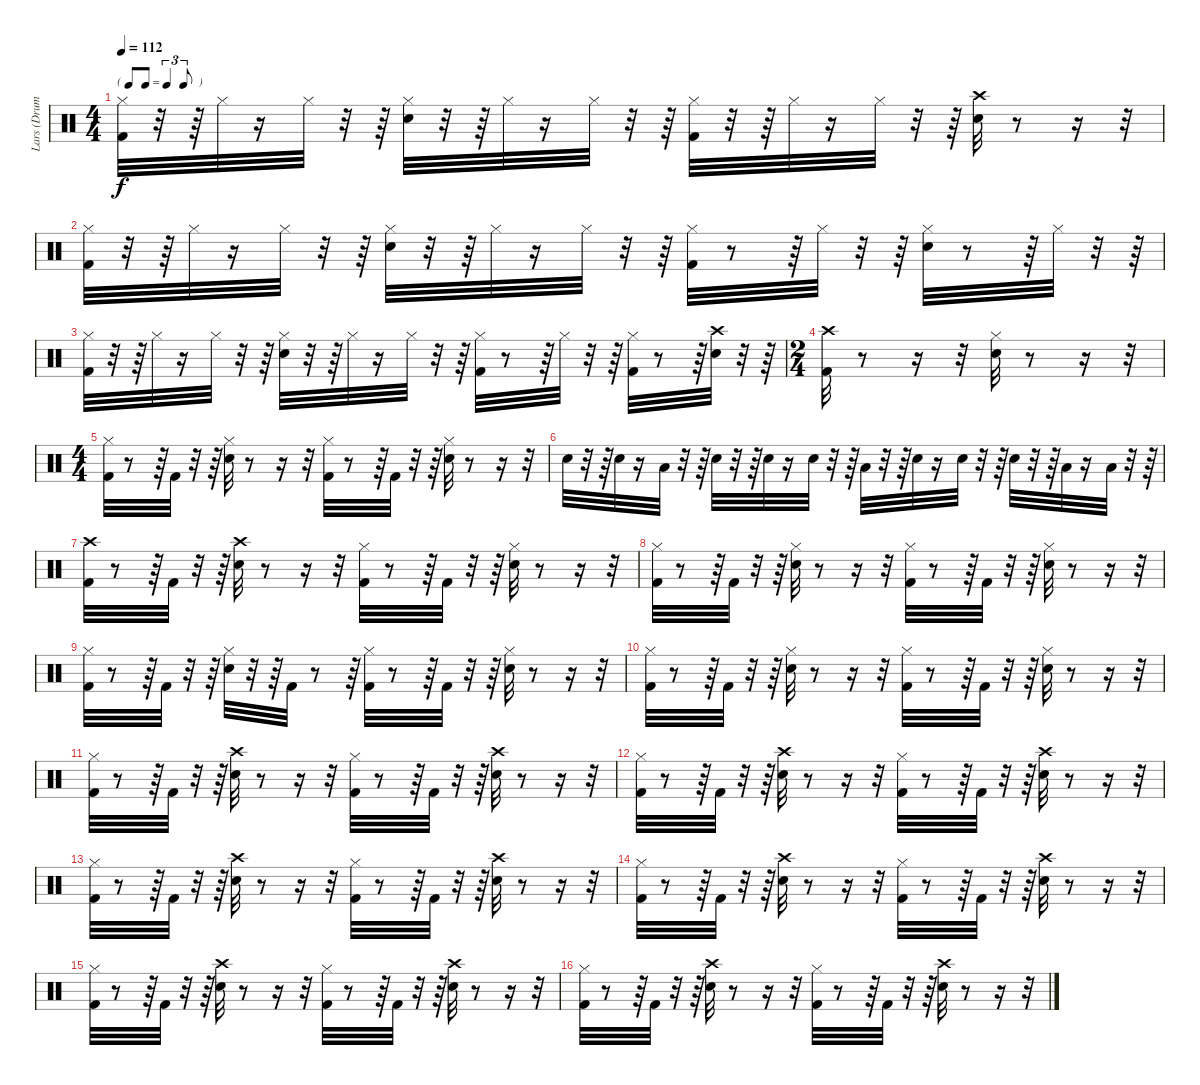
\track ("Lars (Drums)" "Lars (Drum") {instrument percussion}
\staff {score}
\articulation defaults
\ts (4 4)
\tf triplet8th
\tempo 112
\clef neutral
\ks c
("Hi-Hat (closed)" "Kick (hit) 2").32{dy f} r.32 r.64 "Hi-Hat (closed)".32 r.16 "Hi-Hat (closed)".32 r.32 r.64 ("Hi-Hat (closed)" "Snare (hit) 2").32 r.32 r.64 "Hi-Hat (closed)".32 r.16 "Hi-Hat (closed)".32 r.32 r.64 ("Hi-Hat (closed)" "Kick (hit) 2").32 r.32 r.64 "Hi-Hat (closed)".32 r.16 "Hi-Hat (closed)".32 r.32 r.64 ("Crash high (hit)" "Snare (hit) 2").32 r.8 r.16 r.32 |
("Hi-Hat (closed)" "Kick (hit) 2").32 r.32 r.64 "Hi-Hat (closed)".32 r.16 "Hi-Hat (closed)".32 r.32 r.64 ("Hi-Hat (closed)" "Snare (hit) 2").32 r.32 r.64 "Hi-Hat (closed)".32 r.16 "Hi-Hat (closed)".32 r.32 r.64 ("Hi-Hat (closed)" "Kick (hit) 2").32 r.8 r.64 "Hi-Hat (closed)".32 r.32 r.64 ("Snare (hit) 2" "Hi-Hat (closed)").32 r.8 r.64 "Hi-Hat (closed)".32 r.32 r.64 |
("Hi-Hat (closed)" "Kick (hit) 2").32 r.32 r.64 "Hi-Hat (closed)".32 r.16 "Hi-Hat (closed)".32 r.32 r.64 ("Hi-Hat (closed)" "Snare (hit) 2").32 r.32 r.64 "Hi-Hat (closed)".32 r.16 "Hi-Hat (closed)".32 r.32 r.64 ("Hi-Hat (closed)" "Kick (hit) 2").32 r.8 r.64 "Hi-Hat (closed)".32 r.32 r.64 ("Kick (hit) 2" "Hi-Hat (closed)").32 r.8 r.64 ("Snare (hit) 2" "Crash high (hit)").32 r.32 r.64 |
\ts (2 4)
("Crash high (hit)" "Kick (hit) 2").32 r.8 r.16 r.32 ("Hi-Hat (closed)" "Snare (hit) 2").32 r.8 r.16 r.32 |
\ts (4 4)
("Hi-Hat (closed)" "Kick (hit) 2").32 r.8 r.64 "Kick (hit) 2".32 r.32 r.64 ("Hi-Hat (closed)" "Snare (hit) 2").32 r.8 r.16 r.32 ("Hi-Hat (closed)" "Kick (hit) 2").32 r.8 r.64 "Kick (hit) 2".32 r.32 r.64 ("Hi-Hat (closed)" "Snare (hit) 2").32 r.8 r.16 r.32 |
"Snare (hit) 2".32 r.32 r.64 "Snare (hit) 2".32 r.16 "Low Tom (hit)".32 r.32 r.64 "Snare (hit) 2".32 r.32 r.64 "Snare (hit) 2".32 r.16 "Snare (hit) 2".32 r.32 r.64 "Low Tom (hit)".32 r.32 r.64 "Snare (hit) 2".32 r.16 "Snare (hit) 2".32 r.32 r.64 "Snare (hit) 2".32 r.32 r.64 "Low Tom (hit)".32 r.16 "Low Tom (hit)".32 r.32 r.64 |
("Crash high (hit)" "Kick (hit) 2").32 r.8 r.64 "Kick (hit) 2".32 r.32 r.64 ("Crash high (hit)" "Snare (hit) 2").32 r.8 r.16 r.32 ("Hi-Hat (closed)" "Kick (hit) 2").32 r.8 r.64 "Kick (hit) 2".32 r.32 r.64 ("Snare (hit) 2" "Hi-Hat (closed)").32 r.8 r.16 r.32 |
("Hi-Hat (closed)" "Kick (hit) 2").32 r.8 r.64 "Kick (hit) 2".32 r.32 r.64 ("Hi-Hat (closed)" "Snare (hit) 2").32 r.8 r.16 r.32 ("Hi-Hat (closed)" "Kick (hit) 2").32 r.8 r.64 "Kick (hit) 2".32 r.32 r.64 ("Snare (hit) 2" "Hi-Hat (closed)").32 r.8 r.16 r.32 |
("Kick (hit) 2" "Hi-Hat (closed)").32 r.8 r.64 "Kick (hit) 2".32 r.32 r.64 ("Hi-Hat (closed)" "Snare (hit) 2").32 r.32 r.64 "Kick (hit) 2".32 r.8 r.64 ("Hi-Hat (closed)" "Kick (hit) 2").32 r.8 r.64 "Kick (hit) 2".32 r.32 r.64 ("Snare (hit) 2" "Hi-Hat (closed)").32 r.8 r.16 r.32 |
("Hi-Hat (closed)" "Kick (hit) 2").32 r.8 r.64 "Kick (hit) 2".32 r.32 r.64 ("Hi-Hat (closed)" "Snare (hit) 2").32 r.8 r.16 r.32 ("Hi-Hat (closed)" "Kick (hit) 2").32 r.8 r.64 "Kick (hit) 2".32 r.32 r.64 ("Snare (hit) 2" "Hi-Hat (closed)").32 r.8 r.16 r.32 |
("Hi-Hat (closed)" "Kick (hit) 2").32 r.8 r.64 "Kick (hit) 2".32 r.32 r.64 ("Crash high (hit)" "Snare (hit) 2").32 r.8 r.16 r.32 ("Hi-Hat (closed)" "Kick (hit) 2").32 r.8 r.64 "Kick (hit) 2".32 r.32 r.64 ("Snare (hit) 2" "Crash high (hit)").32 r.8 r.16 r.32 |
("Hi-Hat (closed)" "Kick (hit) 2").32 r.8 r.64 "Kick (hit) 2".32 r.32 r.64 ("Crash high (hit)" "Snare (hit) 2").32 r.8 r.16 r.32 ("Hi-Hat (closed)" "Kick (hit) 2").32 r.8 r.64 "Kick (hit) 2".32 r.32 r.64 ("Snare (hit) 2" "Crash high (hit)").32 r.8 r.16 r.32 |
("Hi-Hat (closed)" "Kick (hit) 2").32 r.8 r.64 "Kick (hit) 2".32 r.32 r.64 ("Crash high (hit)" "Snare (hit) 2").32 r.8 r.16 r.32 ("Hi-Hat (closed)" "Kick (hit) 2").32 r.8 r.64 "Kick (hit) 2".32 r.32 r.64 ("Snare (hit) 2" "Crash high (hit)").32 r.8 r.16 r.32 |
("Hi-Hat (closed)" "Kick (hit) 2").32 r.8 r.64 "Kick (hit) 2".32 r.32 r.64 ("Crash high (hit)" "Snare (hit) 2").32 r.8 r.16 r.32 ("Hi-Hat (closed)" "Kick (hit) 2").32 r.8 r.64 "Kick (hit) 2".32 r.32 r.64 ("Snare (hit) 2" "Crash high (hit)").32 r.8 r.16 r.32 |
("Hi-Hat (closed)" "Kick (hit) 2").32 r.8 r.64 "Kick (hit) 2".32 r.32 r.64 ("Crash high (hit)" "Snare (hit) 2").32 r.8 r.16 r.32 ("Hi-Hat (closed)" "Kick (hit) 2").32 r.8 r.64 "Kick (hit) 2".32 r.32 r.64 ("Snare (hit) 2" "Crash high (hit)").32 r.8 r.16 r.32 |
("Hi-Hat (closed)" "Kick (hit) 2").32 r.8 r.64 "Kick (hit) 2".32 r.32 r.64 ("Crash high (hit)" "Snare (hit) 2").32 r.8 r.16 r.32 ("Hi-Hat (closed)" "Kick (hit) 2").32 r.8 r.64 "Kick (hit) 2".32 r.32 r.64 ("Snare (hit) 2" "Crash high (hit)").32 r.8 r.16 r.32
